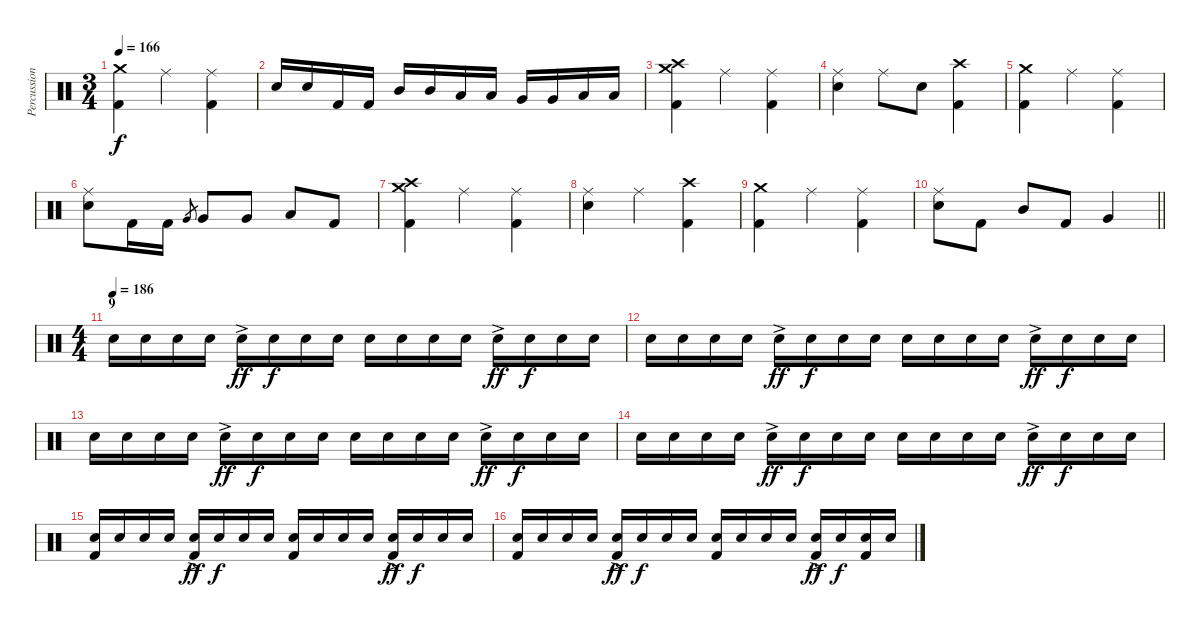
\track ("Percussion" "Percussion") {instrument percussion}
\staff {score}
\articulation defaults
\ts (3 4)
\tempo 166
\clef neutral
\ks c
("Crash medium (hit)" "Kick (hit) 2").4{dy f} "Ride (middle)".4 ("Ride (middle)" "Kick (hit) 2").4 |
"Electric Snare (hit)".16 "Electric Snare (hit)".16 "Kick (hit) 2".16 "Kick (hit) 2".16 "Mid Tom (hit)".16 "Mid Tom (hit)".16 "Low Tom (hit)".16 "Low Tom (hit)".16 "Very Low Tom (hit)".16 "Very Low Tom (hit)".16 "Low Floor Tom (hit)".16 "Low Floor Tom (hit)".16 |
("Crash medium (hit)" "Crash high (hit)" "Kick (hit) 2").4 "Ride (middle)".4 ("Ride (middle)" "Kick (hit) 2").4 |
("Ride (middle)" "Electric Snare (hit)").4 "Ride (middle)".8 "Electric Snare (hit)".8 ("Crash high (hit)" "Kick (hit) 2").4 |
("Crash medium (hit)" "Kick (hit) 2").4 "Ride (middle)".4 ("Ride (middle)" "Kick (hit) 2").4 |
("Ride (middle)" "Electric Snare (hit)").8 "Kick (hit) 2".16 "Kick (hit) 2".16 "Very Low Tom (hit)".8{gr} "Very Low Tom (hit)".8 "Very Low Tom (hit)".8 "Low Floor Tom (hit)".8 "Kick (hit) 2".8 |
("Crash medium (hit)" "Crash high (hit)" "Kick (hit) 2").4 "Ride (middle)".4 ("Ride (middle)" "Kick (hit) 2").4 |
("Ride (middle)" "Electric Snare (hit)").4 "Ride (middle)".4 ("Crash high (hit)" "Kick (hit) 2").4 |
("Crash medium (hit)" "Kick (hit) 2").4 "Ride (middle)".4 ("Ride (middle)" "Kick (hit) 2").4 |
\barLineRight lightlight
("Ride (middle)" "Electric Snare (hit)").8 "Kick (hit) 2".8 "Mid Tom (hit)".8 "Kick (hit) 2".8 "Very Low Tom (hit)".4 |
\ts (4 4)
\section ("" "9")
\tempo (186)
"Electric Snare (hit)".16{volume 3} "Electric Snare (hit)".16{volume 13} "Electric Snare (hit)".16 "Electric Snare (hit)".16 "Electric Snare (hit)"{ac}.16{dy ff} "Electric Snare (hit)".16{dy f} "Electric Snare (hit)".16 "Electric Snare (hit)".16 "Electric Snare (hit)".16 "Electric Snare (hit)".16 "Electric Snare (hit)".16 "Electric Snare (hit)".16 "Electric Snare (hit)"{ac}.16{dy ff} "Electric Snare (hit)".16{dy f} "Electric Snare (hit)".16 "Electric Snare (hit)".16 |
"Electric Snare (hit)".16 "Electric Snare (hit)".16 "Electric Snare (hit)".16 "Electric Snare (hit)".16 "Electric Snare (hit)"{ac}.16{dy ff} "Electric Snare (hit)".16{dy f} "Electric Snare (hit)".16 "Electric Snare (hit)".16 "Electric Snare (hit)".16 "Electric Snare (hit)".16 "Electric Snare (hit)".16 "Electric Snare (hit)".16 "Electric Snare (hit)"{ac}.16{dy ff} "Electric Snare (hit)".16{dy f} "Electric Snare (hit)".16 "Electric Snare (hit)".16 |
"Electric Snare (hit)".16 "Electric Snare (hit)".16 "Electric Snare (hit)".16 "Electric Snare (hit)".16 "Electric Snare (hit)"{ac}.16{dy ff} "Electric Snare (hit)".16{dy f} "Electric Snare (hit)".16 "Electric Snare (hit)".16 "Electric Snare (hit)".16 "Electric Snare (hit)".16 "Electric Snare (hit)".16 "Electric Snare (hit)".16 "Electric Snare (hit)"{ac}.16{dy ff} "Electric Snare (hit)".16{dy f} "Electric Snare (hit)".16 "Electric Snare (hit)".16 |
"Electric Snare (hit)".16 "Electric Snare (hit)".16 "Electric Snare (hit)".16 "Electric Snare (hit)".16 "Electric Snare (hit)"{ac}.16{dy ff} "Electric Snare (hit)".16{dy f} "Electric Snare (hit)".16 "Electric Snare (hit)".16 "Electric Snare (hit)".16 "Electric Snare (hit)".16 "Electric Snare (hit)".16 "Electric Snare (hit)".16 "Electric Snare (hit)"{ac}.16{dy ff} "Electric Snare (hit)".16{dy f} "Electric Snare (hit)".16 "Electric Snare (hit)".16 |
("Electric Snare (hit)" "Kick (hit) 2").16 "Electric Snare (hit)".16 "Electric Snare (hit)".16 "Electric Snare (hit)".16 ("Electric Snare (hit)"{ac} "Kick (hit) 2").16{dy ff} "Electric Snare (hit)".16{dy f} "Electric Snare (hit)".16 "Electric Snare (hit)".16 ("Electric Snare (hit)" "Kick (hit) 2").16 "Electric Snare (hit)".16 "Electric Snare (hit)".16 "Electric Snare (hit)".16 ("Electric Snare (hit)"{ac} "Kick (hit) 2").16{dy ff} "Electric Snare (hit)".16{dy f} "Electric Snare (hit)".16 "Electric Snare (hit)".16 |
("Electric Snare (hit)" "Kick (hit) 2").16 "Electric Snare (hit)".16 "Electric Snare (hit)".16 "Electric Snare (hit)".16 ("Electric Snare (hit)"{ac} "Kick (hit) 2").16{dy ff} "Electric Snare (hit)".16{dy f} "Electric Snare (hit)".16 "Electric Snare (hit)".16 ("Electric Snare (hit)" "Kick (hit) 2").16 "Electric Snare (hit)".16 "Electric Snare (hit)".16 "Electric Snare (hit)".16 ("Electric Snare (hit)"{ac} "Kick (hit) 2").16{dy ff} "Electric Snare (hit)".16{dy f} ("Electric Snare (hit)" "Kick (hit) 2").16 "Electric Snare (hit)".16
